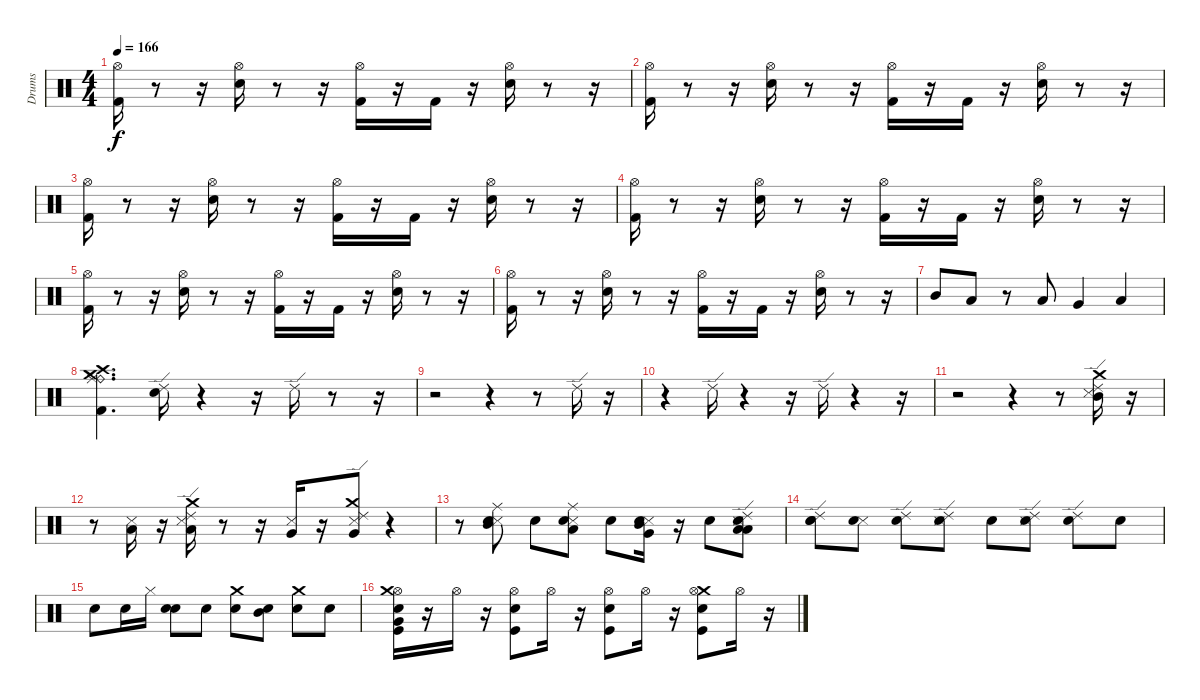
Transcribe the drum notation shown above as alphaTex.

\track ("Drums" "Drums") {instrument percussion}
\staff {score}
\articulation defaults
\ts (4 4)
\tempo 166
\clef neutral
\ks c
("Hi-Hat (open)" "Kick (hit) 2").16{dy f} r.8 r.16 ("Snare (hit) 2" "Hi-Hat (open)").16 r.8 r.16 ("Kick (hit) 2" "Hi-Hat (open)").16 r.16 "Kick (hit) 2".16 r.16 ("Hi-Hat (open)" "Snare (hit) 2").16 r.8 r.16 |
("Hi-Hat (open)" "Kick (hit) 2").16 r.8 r.16 ("Snare (hit) 2" "Hi-Hat (open)").16 r.8 r.16 ("Kick (hit) 2" "Hi-Hat (open)").16 r.16 "Kick (hit) 2".16 r.16 ("Hi-Hat (open)" "Snare (hit) 2").16 r.8 r.16 |
("Hi-Hat (open)" "Kick (hit) 2").16 r.8 r.16 ("Snare (hit) 2" "Hi-Hat (open)").16 r.8 r.16 ("Kick (hit) 2" "Hi-Hat (open)").16 r.16 "Kick (hit) 2".16 r.16 ("Hi-Hat (open)" "Snare (hit) 2").16 r.8 r.16 |
("Hi-Hat (open)" "Kick (hit) 2").16 r.8 r.16 ("Snare (hit) 2" "Hi-Hat (open)").16 r.8 r.16 ("Kick (hit) 2" "Hi-Hat (open)").16 r.16 "Kick (hit) 2".16 r.16 ("Hi-Hat (open)" "Snare (hit) 2").16 r.8 r.16 |
("Hi-Hat (open)" "Kick (hit) 2").16 r.8 r.16 ("Snare (hit) 2" "Hi-Hat (open)").16 r.8 r.16 ("Kick (hit) 2" "Hi-Hat (open)").16 r.16 "Kick (hit) 2".16 r.16 ("Hi-Hat (open)" "Snare (hit) 2").16 r.8 r.16 |
("Hi-Hat (open)" "Kick (hit) 2").16 r.8 r.16 ("Snare (hit) 2" "Hi-Hat (open)").16 r.8 r.16 ("Kick (hit) 2" "Hi-Hat (open)").16 r.16 "Kick (hit) 2".16 r.16 ("Hi-Hat (open)" "Snare (hit) 2").16 r.8 r.16 |
"Mid Tom (hit)".8 "Low Tom (hit)".8 r.8 "Low Tom (hit)".8 "Very Low Tom (hit)".4 "Low Floor Tom (hit)".4 |
("Ride (bell)" "Crash high (hit)" "Ride (middle)" "Crash medium (hit)" "Kick (hit) 2").4{d} ("Snare (hit)" "Ride (edge) 2").16 r.4 r.16 "Ride (edge) 2".16 r.8 r.16 |
r.2 r.4 r.8 "Ride (edge) 2".16 r.16 |
r.4 "Ride (edge) 2".16 r.4 r.16 "Ride (edge) 2".16 r.4 r.16 |
r.2 r.4 r.8 ("Ride (edge) 2" "Mid Tom (hit)" "Crash medium (hit)" "Metronome (hit)").16 r.16 |
r.8 ("Metronome (hit)" "Low Tom (hit)").16 r.16 ("Crash medium (hit)" "Ride (edge) 2" "Low Tom (hit)" "Metronome (hit)").16 r.8 r.16 ("Metronome (hit)" "Very Low Tom (hit)").16 r.16 ("Metronome (hit)" "Ride (edge) 2" "Crash medium (hit)" "Very Low Tom (hit)").8 r.4 |
r.8 ("Mid Tom (hit)" "Metronome (hit)" "Ride (middle)" "Snare (hit) 2").8 "Snare (hit) 2".8 ("Metronome (hit)" "Ride (middle)" "Low Tom (hit)" "Snare (hit) 2").8 "Snare (hit) 2".8 ("Metronome (hit)" "Very Low Tom (hit)" "Snare (hit) 2" "Mid Tom (hit)").16 r.16 "Snare (hit) 2".8 ("Ride (edge) 2" "Metronome (hit)" "Low Floor Tom (hit)" "Snare (hit) 2" "Low Tom (hit)").8 |
("Snare (hit)" "Ride (edge) 2" "Snare (hit) 2").8 ("Metronome (hit)" "Snare (hit) 2").8 ("Ride (edge) 2" "Snare (hit) 2").8 ("Ride (edge) 2" "Metronome (hit)" "Snare (hit) 2").8 "Snare (hit) 2".8 ("Ride (edge) 2" "Metronome (hit)" "Snare (hit) 2").8 ("Ride (edge) 2" "Snare (hit) 2").8 "Snare (hit) 2".8 |
"Snare (hit) 2".8 "Snare (hit) 2".16 "Hi-Hat (closed)".16 ("Snare (hit)" "Snare (hit) 2").8 "Snare (hit) 2".8 ("Crash medium (hit)" "Snare (hit) 2").8 ("Mid Tom (hit)" "Snare (hit) 2").8 ("Crash medium (hit)" "Snare (hit) 2").8 "Snare (hit) 2".8 |
("Kick (hit)" "Hi-Hat (open)" "Electric Snare (hit)" "Very Low Tom (hit)" "Crash medium (hit)").16 r.16 "Hi-Hat (open)".16 r.16 ("Kick (hit)" "Hi-Hat (open)" "Electric Snare (hit)").8 "Hi-Hat (open)".16 r.16 ("Kick (hit)" "Hi-Hat (open)" "Electric Snare (hit)").8 "Hi-Hat (open)".16 r.16 ("Kick (hit)" "Crash medium (hit)" "Hi-Hat (open)" "Electric Snare (hit)").8 "Hi-Hat (open)".16 r.16
